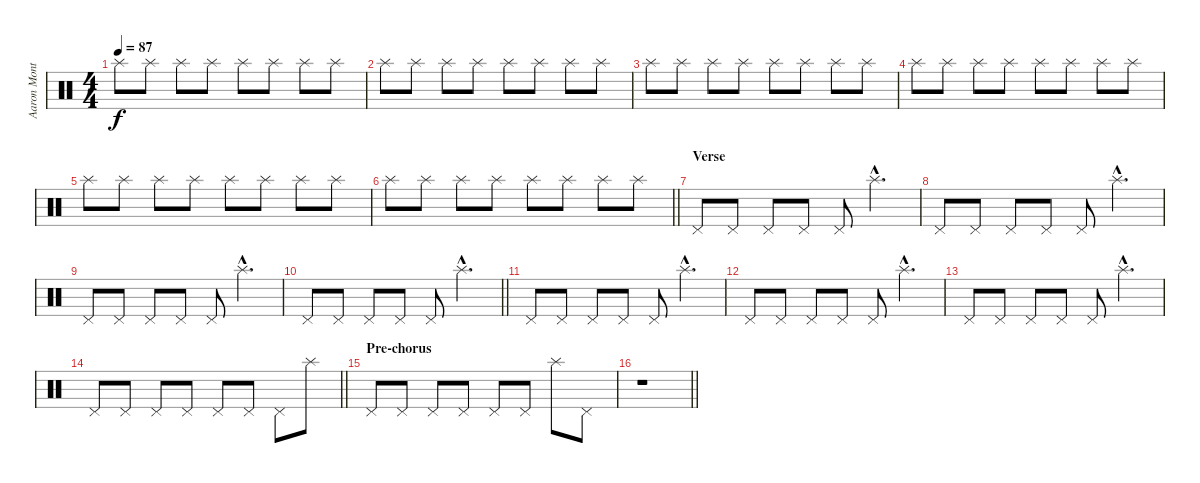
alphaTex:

\track ("Aaron Montgomery (Drums)" "Aaron Mont") {instrument percussion}
\staff {score}
\articulation defaults
\ts (4 4)
\tempo 87
\clef neutral
\ks c "Splash (hit)".8{dy f} "Splash (hit)".8 "Splash (hit)".8 "Splash (hit)".8 "Splash (hit)".8 "Splash (hit)".8 "Splash (hit)".8 "Splash (hit)".8
|
"Splash (hit)".8 "Splash (hit)".8 "Splash (hit)".8 "Splash (hit)".8 "Splash (hit)".8 "Splash (hit)".8 "Splash (hit)".8 "Splash (hit)".8 |
"Splash (hit)".8 "Splash (hit)".8 "Splash (hit)".8 "Splash (hit)".8 "Splash (hit)".8 "Splash (hit)".8 "Splash (hit)".8 "Splash (hit)".8 |
"Splash (hit)".8 "Splash (hit)".8 "Splash (hit)".8 "Splash (hit)".8 "Splash (hit)".8 "Splash (hit)".8 "Splash (hit)".8 "Splash (hit)".8 |
"Splash (hit)".8 "Splash (hit)".8 "Splash (hit)".8 "Splash (hit)".8 "Splash (hit)".8 "Splash (hit)".8 "Splash (hit)".8 "Splash (hit)".8 |
\barLineRight lightlight "Splash (hit)".8 "Splash (hit)".8 "Splash (hit)".8 "Splash (hit)".8 "Splash (hit)".8 "Splash (hit)".8 "Splash (hit)".8 "Splash (hit)".8
|
\section ("" "Verse")
"Pedal Hi-Hat (hit)".8 "Pedal Hi-Hat (hit)".8 "Pedal Hi-Hat (hit)".8 "Pedal Hi-Hat (hit)".8 "Pedal Hi-Hat (hit)".8 "Splash (hit)"{hac}.4{d} |
"Pedal Hi-Hat (hit)".8 "Pedal Hi-Hat (hit)".8 "Pedal Hi-Hat (hit)".8 "Pedal Hi-Hat (hit)".8 "Pedal Hi-Hat (hit)".8 "Splash (hit)"{hac}.4{d} |
"Pedal Hi-Hat (hit)".8 "Pedal Hi-Hat (hit)".8 "Pedal Hi-Hat (hit)".8 "Pedal Hi-Hat (hit)".8 "Pedal Hi-Hat (hit)".8 "Splash (hit)"{hac}.4{d} |
\barLineRight lightlight "Pedal Hi-Hat (hit)".8 "Pedal Hi-Hat (hit)".8 "Pedal Hi-Hat (hit)".8 "Pedal Hi-Hat (hit)".8 "Pedal Hi-Hat (hit)".8 "Splash (hit)"{hac}.4{d}
|
"Pedal Hi-Hat (hit)".8 "Pedal Hi-Hat (hit)".8 "Pedal Hi-Hat (hit)".8 "Pedal Hi-Hat (hit)".8 "Pedal Hi-Hat (hit)".8 "Splash (hit)"{hac}.4{d} |
"Pedal Hi-Hat (hit)".8 "Pedal Hi-Hat (hit)".8 "Pedal Hi-Hat (hit)".8 "Pedal Hi-Hat (hit)".8 "Pedal Hi-Hat (hit)".8 "Splash (hit)"{hac}.4{d} |
"Pedal Hi-Hat (hit)".8 "Pedal Hi-Hat (hit)".8 "Pedal Hi-Hat (hit)".8 "Pedal Hi-Hat (hit)".8 "Pedal Hi-Hat (hit)".8 "Splash (hit)"{hac}.4{d} |
\barLineRight lightlight "Pedal Hi-Hat (hit)".8 "Pedal Hi-Hat (hit)".8 "Pedal Hi-Hat (hit)".8 "Pedal Hi-Hat (hit)".8 "Pedal Hi-Hat (hit)".8 "Pedal Hi-Hat (hit)".8 "Pedal Hi-Hat (hit)".8 "Splash (hit)".8
|
\section ("" "Pre-chorus")
"Pedal Hi-Hat (hit)".8 "Pedal Hi-Hat (hit)".8 "Pedal Hi-Hat (hit)".8 "Pedal Hi-Hat (hit)".8 "Pedal Hi-Hat (hit)".8 "Pedal Hi-Hat (hit)".8 "Splash (hit)".8 "Pedal Hi-Hat (hit)".8 |
\barLineRight lightlight
r.1
